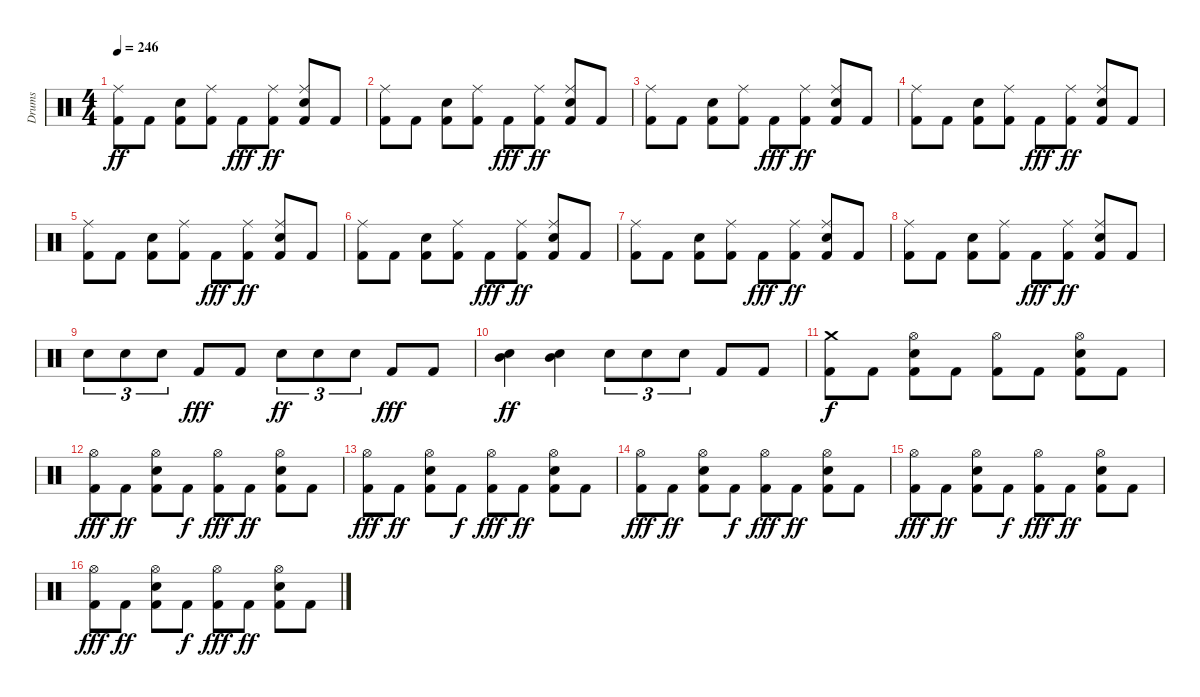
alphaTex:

\track ("Drums" "Drums") {instrument percussion}
\staff {score}
\articulation defaults
\ts (4 4)
\tempo 246
\clef neutral
\ks c
("Kick (hit) 2" "Ride (middle)").8{dy ff volume 12} "Kick (hit) 2".8 ("Kick (hit) 2" "Snare (hit) 2").8 ("Kick (hit) 2" "Ride (middle)").8 "Kick (hit) 2".8{dy fff} ("Kick (hit) 2" "Ride (middle)").8{dy ff} ("Kick (hit) 2" "Snare (hit) 2" "Ride (middle)").8 "Kick (hit) 2".8 |
("Kick (hit) 2" "Ride (middle)").8{volume 12} "Kick (hit) 2".8 ("Kick (hit) 2" "Snare (hit) 2").8 ("Kick (hit) 2" "Ride (middle)").8 "Kick (hit) 2".8{dy fff} ("Kick (hit) 2" "Ride (middle)").8{dy ff} ("Kick (hit) 2" "Snare (hit) 2" "Ride (middle)").8 "Kick (hit) 2".8 |
("Kick (hit) 2" "Ride (middle)").8{volume 12} "Kick (hit) 2".8 ("Kick (hit) 2" "Snare (hit) 2").8 ("Kick (hit) 2" "Ride (middle)").8 "Kick (hit) 2".8{dy fff} ("Kick (hit) 2" "Ride (middle)").8{dy ff} ("Kick (hit) 2" "Snare (hit) 2" "Ride (middle)").8 "Kick (hit) 2".8 |
("Kick (hit) 2" "Ride (middle)").8{volume 12} "Kick (hit) 2".8 ("Kick (hit) 2" "Snare (hit) 2").8 ("Kick (hit) 2" "Ride (middle)").8 "Kick (hit) 2".8{dy fff} ("Kick (hit) 2" "Ride (middle)").8{dy ff} ("Kick (hit) 2" "Snare (hit) 2" "Ride (middle)").8 "Kick (hit) 2".8 |
("Kick (hit) 2" "Ride (middle)").8{volume 12} "Kick (hit) 2".8 ("Kick (hit) 2" "Snare (hit) 2").8 ("Kick (hit) 2" "Ride (middle)").8 "Kick (hit) 2".8{dy fff} ("Kick (hit) 2" "Ride (middle)").8{dy ff} ("Kick (hit) 2" "Snare (hit) 2" "Ride (middle)").8 "Kick (hit) 2".8 |
("Kick (hit) 2" "Ride (middle)").8{volume 12} "Kick (hit) 2".8 ("Kick (hit) 2" "Snare (hit) 2").8 ("Kick (hit) 2" "Ride (middle)").8 "Kick (hit) 2".8{dy fff} ("Kick (hit) 2" "Ride (middle)").8{dy ff} ("Kick (hit) 2" "Snare (hit) 2" "Ride (middle)").8 "Kick (hit) 2".8 |
("Kick (hit) 2" "Ride (middle)").8{volume 12} "Kick (hit) 2".8 ("Kick (hit) 2" "Snare (hit) 2").8 ("Kick (hit) 2" "Ride (middle)").8 "Kick (hit) 2".8{dy fff} ("Kick (hit) 2" "Ride (middle)").8{dy ff} ("Kick (hit) 2" "Snare (hit) 2" "Ride (middle)").8 "Kick (hit) 2".8 |
("Kick (hit) 2" "Ride (middle)").8{volume 12} "Kick (hit) 2".8 ("Kick (hit) 2" "Snare (hit) 2").8 ("Kick (hit) 2" "Ride (middle)").8 "Kick (hit) 2".8{dy fff} ("Kick (hit) 2" "Ride (middle)").8{dy ff} ("Kick (hit) 2" "Snare (hit) 2" "Ride (middle)").8 "Kick (hit) 2".8 |
"Snare (hit) 2".8{tu (3 2) volume 12} "Snare (hit) 2".8{tu (3 2)} "Snare (hit) 2".8{tu (3 2)} "Kick (hit) 2".8{dy fff} "Kick (hit) 2".8 "Snare (hit) 2".8{tu (3 2) dy ff} "Snare (hit) 2".8{tu (3 2)} "Snare (hit) 2".8{tu (3 2)} "Kick (hit) 2".8{dy fff} "Kick (hit) 2".8 |
("Snare (hit) 2" "Mid Tom (hit)").4{dy ff volume 12} ("Snare (hit) 2" "Mid Tom (hit)").4 "Snare (hit) 2".8{tu (3 2)} "Snare (hit) 2".8{tu (3 2)} "Snare (hit) 2".8{tu (3 2)} "Kick (hit) 2".8 "Kick (hit) 2".8 |
("Kick (hit) 2" "Crash medium (hit)").8{dy f volume 12} "Kick (hit) 2".8 ("Kick (hit) 2" "Snare (hit) 2" "Hi-Hat (open)").8 "Kick (hit) 2".8 ("Kick (hit) 2" "Hi-Hat (open)").8 "Kick (hit) 2".8 ("Kick (hit) 2" "Snare (hit) 2" "Hi-Hat (open)").8 "Kick (hit) 2".8 |
("Kick (hit) 2" "Hi-Hat (open)").8{dy fff volume 12} "Kick (hit) 2".8{dy ff} ("Kick (hit) 2" "Snare (hit) 2" "Hi-Hat (open)").8 "Kick (hit) 2".8{dy f} ("Kick (hit) 2" "Hi-Hat (open)").8{dy fff} "Kick (hit) 2".8{dy ff} ("Kick (hit) 2" "Snare (hit) 2" "Hi-Hat (open)").8 "Kick (hit) 2".8 |
("Kick (hit) 2" "Hi-Hat (open)").8{dy fff volume 12} "Kick (hit) 2".8{dy ff} ("Kick (hit) 2" "Snare (hit) 2" "Hi-Hat (open)").8 "Kick (hit) 2".8{dy f} ("Kick (hit) 2" "Hi-Hat (open)").8{dy fff} "Kick (hit) 2".8{dy ff} ("Kick (hit) 2" "Snare (hit) 2" "Hi-Hat (open)").8 "Kick (hit) 2".8 |
("Kick (hit) 2" "Hi-Hat (open)").8{dy fff volume 12} "Kick (hit) 2".8{dy ff} ("Kick (hit) 2" "Snare (hit) 2" "Hi-Hat (open)").8 "Kick (hit) 2".8{dy f} ("Kick (hit) 2" "Hi-Hat (open)").8{dy fff} "Kick (hit) 2".8{dy ff} ("Kick (hit) 2" "Snare (hit) 2" "Hi-Hat (open)").8 "Kick (hit) 2".8 |
("Kick (hit) 2" "Hi-Hat (open)").8{dy fff volume 12} "Kick (hit) 2".8{dy ff} ("Kick (hit) 2" "Snare (hit) 2" "Hi-Hat (open)").8 "Kick (hit) 2".8{dy f} ("Kick (hit) 2" "Hi-Hat (open)").8{dy fff} "Kick (hit) 2".8{dy ff} ("Kick (hit) 2" "Snare (hit) 2" "Hi-Hat (open)").8 "Kick (hit) 2".8 |
("Kick (hit) 2" "Hi-Hat (open)").8{dy fff volume 12} "Kick (hit) 2".8{dy ff} ("Kick (hit) 2" "Snare (hit) 2" "Hi-Hat (open)").8 "Kick (hit) 2".8{dy f} ("Kick (hit) 2" "Hi-Hat (open)").8{dy fff} "Kick (hit) 2".8{dy ff} ("Kick (hit) 2" "Snare (hit) 2" "Hi-Hat (open)").8 "Kick (hit) 2".8
